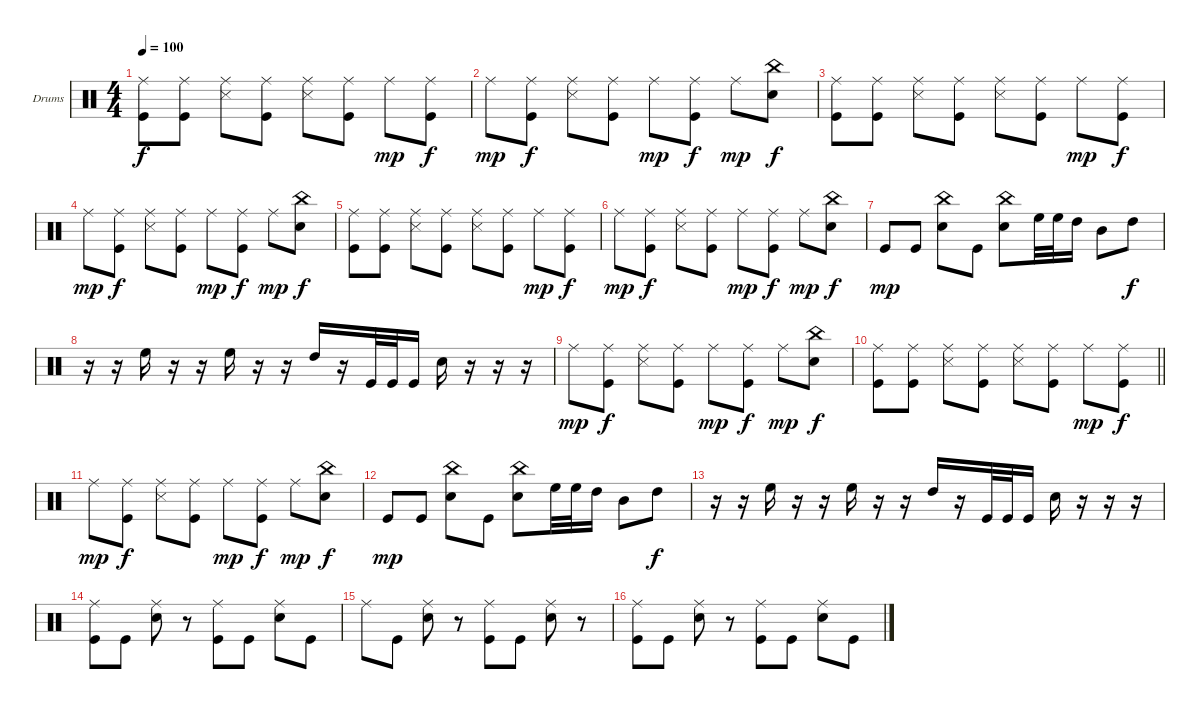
\bracketExtendMode groupsimilarinstruments
\firstSystemTrackNameOrientation horizontal
\otherSystemsTrackNameOrientation horizontal
\track ("Drumkit" "Drums") {instrument percussion}
\staff {score}
\articulation defaults
\ts (4 4)
\tempo 100
\clef neutral
\ks c
("Kick (hit)" "Ride (middle)").8{dy f} ("Kick (hit)" "Ride (middle)").8 ("Snare (side stick) 3" "Ride (middle)").8 ("Kick (hit)" "Ride (middle)").8 ("Snare (side stick) 3" "Ride (middle)").8 ("Kick (hit)" "Ride (middle)").8 "Ride (middle)".8{dy mp} ("Kick (hit)" "Ride (middle)").8{dy f} |
"Ride (middle)".8{dy mp} ("Kick (hit)" "Ride (middle)").8{dy f} ("Snare (side stick) 3" "Ride (middle)").8 ("Kick (hit)" "Ride (middle)").8 "Ride (middle)".8{dy mp} ("Kick (hit)" "Ride (middle)").8{dy f} "Ride (middle)".8{dy mp} ("Snare (hit) 2" "China (hit)").8{dy f} |
("Kick (hit)" "Ride (middle)").8 ("Kick (hit)" "Ride (middle)").8 ("Snare (side stick) 3" "Ride (middle)").8 ("Kick (hit)" "Ride (middle)").8 ("Snare (side stick) 3" "Ride (middle)").8 ("Kick (hit)" "Ride (middle)").8 "Ride (middle)".8{dy mp} ("Kick (hit)" "Ride (middle)").8{dy f} |
"Ride (middle)".8{dy mp} ("Kick (hit)" "Ride (middle)").8{dy f} ("Snare (side stick) 3" "Ride (middle)").8 ("Kick (hit)" "Ride (middle)").8 "Ride (middle)".8{dy mp} ("Kick (hit)" "Ride (middle)").8{dy f} "Ride (middle)".8{dy mp} ("Snare (hit) 2" "China (hit)").8{dy f} |
("Kick (hit)" "Ride (middle)").8 ("Kick (hit)" "Ride (middle)").8 ("Snare (side stick) 3" "Ride (middle)").8 ("Kick (hit)" "Ride (middle)").8 ("Snare (side stick) 3" "Ride (middle)").8 ("Kick (hit)" "Ride (middle)").8 "Ride (middle)".8{dy mp} ("Kick (hit)" "Ride (middle)").8{dy f} |
"Ride (middle)".8{dy mp} ("Kick (hit)" "Ride (middle)").8{dy f} ("Snare (side stick) 3" "Ride (middle)").8 ("Kick (hit)" "Ride (middle)").8 "Ride (middle)".8{dy mp} ("Kick (hit)" "Ride (middle)").8{dy f} "Ride (middle)".8{dy mp} ("Snare (hit) 2" "China (hit)").8{dy f} |
"Kick (hit)".8{dy mp} "Kick (hit)".8 ("Snare (hit) 2" "China (hit)").8 "Kick (hit)".8 ("Snare (hit) 2" "China (hit)").8 "High Floor Tom (hit)".32 "High Floor Tom (hit)".32 "High Tom (hit)".16 "Mid Tom (hit)".8 "High Tom (hit)".8{dy f} |
r.16 r.16 "High Floor Tom (hit)".16 r.16 r.16 "High Floor Tom (hit)".16 r.16 r.16 "High Tom (hit)".16 r.16 "Kick (hit)".32 "Kick (hit)".32 "Kick (hit)".16 "Snare (hit) 2".16 r.16 r.16 r.16 |
"Ride (middle)".8{dy mp} ("Kick (hit)" "Ride (middle)").8{dy f} ("Snare (side stick) 3" "Ride (middle)").8 ("Kick (hit)" "Ride (middle)").8 "Ride (middle)".8{dy mp} ("Kick (hit)" "Ride (middle)").8{dy f} "Ride (middle)".8{dy mp} ("Snare (hit) 2" "China (hit)").8{dy f} |
\barLineRight lightlight
("Kick (hit)" "Ride (middle)").8 ("Kick (hit)" "Ride (middle)").8 ("Snare (side stick) 3" "Ride (middle)").8 ("Kick (hit)" "Ride (middle)").8 ("Snare (side stick) 3" "Ride (middle)").8 ("Kick (hit)" "Ride (middle)").8 "Ride (middle)".8{dy mp} ("Kick (hit)" "Ride (middle)").8{dy f} |
"Ride (middle)".8{dy mp} ("Kick (hit)" "Ride (middle)").8{dy f} ("Snare (side stick) 3" "Ride (middle)").8 ("Kick (hit)" "Ride (middle)").8 "Ride (middle)".8{dy mp} ("Kick (hit)" "Ride (middle)").8{dy f} "Ride (middle)".8{dy mp} ("Snare (hit) 2" "China (hit)").8{dy f} |
"Kick (hit)".8{dy mp} "Kick (hit)".8 ("Snare (hit) 2" "China (hit)").8 "Kick (hit)".8 ("Snare (hit) 2" "China (hit)").8 "High Floor Tom (hit)".32 "High Floor Tom (hit)".32 "High Tom (hit)".16 "Mid Tom (hit)".8 "High Tom (hit)".8{dy f} |
r.16 r.16 "High Floor Tom (hit)".16 r.16 r.16 "High Floor Tom (hit)".16 r.16 r.16 "High Tom (hit)".16 r.16 "Kick (hit)".32 "Kick (hit)".32 "Kick (hit)".16 "Snare (hit) 2".16 r.16 r.16 r.16 |
("Kick (hit)" "Ride (middle)").8 "Kick (hit)".8 ("Snare (hit) 2" "Ride (middle)").8 r.8 ("Kick (hit)" "Ride (middle)").8 "Kick (hit)".8 ("Snare (hit) 2" "Ride (middle)").8 "Kick (hit)".8 |
"Ride (middle)".8 "Kick (hit)".8 ("Snare (hit) 2" "Ride (middle)").8 r.8 ("Kick (hit)" "Ride (middle)").8 "Kick (hit)".8 ("Snare (hit) 2" "Ride (middle)").8 r.8 |
("Kick (hit)" "Ride (middle)").8 "Kick (hit)".8 ("Snare (hit) 2" "Ride (middle)").8 r.8 ("Kick (hit)" "Ride (middle)").8 "Kick (hit)".8 ("Snare (hit) 2" "Ride (middle)").8 "Kick (hit)".8
